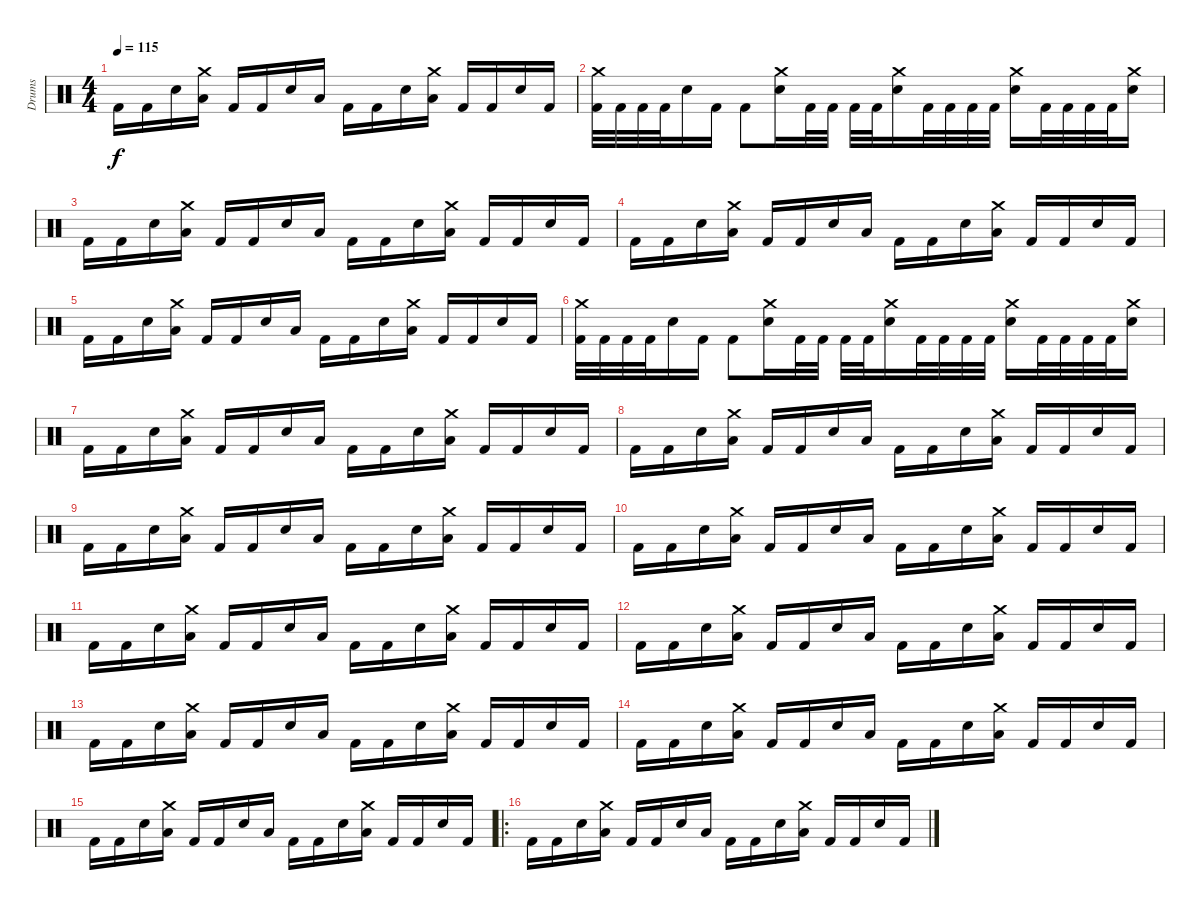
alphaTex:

\track ("Drums" "Drums") {instrument percussion}
\staff {score}
\articulation defaults
\ts (4 4)
\tempo 115
\clef neutral
\ks c "Kick (hit) 2".16{dy f} "Kick (hit) 2".16 "Electric Snare (hit)".16
("Crash medium (hit)" "Low Tom (hit)").16 "Kick (hit) 2".16 "Kick (hit) 2".16 "Electric Snare (hit)".16 "Low Tom (hit)".16 "Kick (hit) 2".16 "Kick (hit) 2".16 "Electric Snare (hit)".16 ("Crash medium (hit)" "Low Tom (hit)").16 "Kick (hit) 2".16 "Kick (hit) 2".16 "Electric Snare (hit)".16 "Kick (hit) 2".16 |
("Crash medium (hit)" "Kick (hit) 2").32 "Kick (hit) 2".32 "Kick (hit) 2".32 "Kick (hit) 2".32 "Electric Snare (hit)".16 "Kick (hit) 2".16 "Kick (hit) 2".8 ("Crash medium (hit)" "Electric Snare (hit)").16 "Kick (hit) 2".32 "Kick (hit) 2".32 "Kick (hit) 2".32 "Kick (hit) 2".32 ("Crash medium (hit)" "Electric Snare (hit)").16 "Kick (hit) 2".32 "Kick (hit) 2".32 "Kick (hit) 2".32 "Kick (hit) 2".32 ("Crash medium (hit)" "Electric Snare (hit)").16 "Kick (hit) 2".32 "Kick (hit) 2".32 "Kick (hit) 2".32 "Kick (hit) 2".32 ("Crash medium (hit)" "Electric Snare (hit)").16 |
"Kick (hit) 2".16 "Kick (hit) 2".16 "Electric Snare (hit)".16 ("Crash medium (hit)" "Low Tom (hit)").16 "Kick (hit) 2".16 "Kick (hit) 2".16 "Electric Snare (hit)".16 "Low Tom (hit)".16 "Kick (hit) 2".16 "Kick (hit) 2".16 "Electric Snare (hit)".16 ("Crash medium (hit)" "Low Tom (hit)").16 "Kick (hit) 2".16 "Kick (hit) 2".16 "Electric Snare (hit)".16 "Kick (hit) 2".16 |
"Kick (hit) 2".16 "Kick (hit) 2".16 "Electric Snare (hit)".16 ("Crash medium (hit)" "Low Tom (hit)").16 "Kick (hit) 2".16 "Kick (hit) 2".16 "Electric Snare (hit)".16 "Low Tom (hit)".16 "Kick (hit) 2".16 "Kick (hit) 2".16 "Electric Snare (hit)".16 ("Crash medium (hit)" "Low Tom (hit)").16 "Kick (hit) 2".16 "Kick (hit) 2".16 "Electric Snare (hit)".16 "Kick (hit) 2".16 |
"Kick (hit) 2".16 "Kick (hit) 2".16 "Electric Snare (hit)".16 ("Crash medium (hit)" "Low Tom (hit)").16 "Kick (hit) 2".16 "Kick (hit) 2".16 "Electric Snare (hit)".16 "Low Tom (hit)".16 "Kick (hit) 2".16 "Kick (hit) 2".16 "Electric Snare (hit)".16 ("Crash medium (hit)" "Low Tom (hit)").16 "Kick (hit) 2".16 "Kick (hit) 2".16 "Electric Snare (hit)".16 "Kick (hit) 2".16 |
("Crash medium (hit)" "Kick (hit) 2").32 "Kick (hit) 2".32 "Kick (hit) 2".32 "Kick (hit) 2".32 "Electric Snare (hit)".16 "Kick (hit) 2".16 "Kick (hit) 2".8 ("Crash medium (hit)" "Electric Snare (hit)").16 "Kick (hit) 2".32 "Kick (hit) 2".32 "Kick (hit) 2".32 "Kick (hit) 2".32 ("Crash medium (hit)" "Electric Snare (hit)").16 "Kick (hit) 2".32 "Kick (hit) 2".32 "Kick (hit) 2".32 "Kick (hit) 2".32 ("Crash medium (hit)" "Electric Snare (hit)").16 "Kick (hit) 2".32 "Kick (hit) 2".32 "Kick (hit) 2".32 "Kick (hit) 2".32 ("Crash medium (hit)" "Electric Snare (hit)").16 |
"Kick (hit) 2".16 "Kick (hit) 2".16 "Electric Snare (hit)".16 ("Crash medium (hit)" "Low Tom (hit)").16 "Kick (hit) 2".16 "Kick (hit) 2".16 "Electric Snare (hit)".16 "Low Tom (hit)".16 "Kick (hit) 2".16 "Kick (hit) 2".16 "Electric Snare (hit)".16 ("Crash medium (hit)" "Low Tom (hit)").16 "Kick (hit) 2".16 "Kick (hit) 2".16 "Electric Snare (hit)".16 "Kick (hit) 2".16 |
"Kick (hit) 2".16 "Kick (hit) 2".16 "Electric Snare (hit)".16 ("Crash medium (hit)" "Low Tom (hit)").16 "Kick (hit) 2".16 "Kick (hit) 2".16 "Electric Snare (hit)".16 "Low Tom (hit)".16 "Kick (hit) 2".16 "Kick (hit) 2".16 "Electric Snare (hit)".16 ("Crash medium (hit)" "Low Tom (hit)").16 "Kick (hit) 2".16 "Kick (hit) 2".16 "Electric Snare (hit)".16 "Kick (hit) 2".16 |
"Kick (hit) 2".16 "Kick (hit) 2".16 "Electric Snare (hit)".16 ("Crash medium (hit)" "Low Tom (hit)").16 "Kick (hit) 2".16 "Kick (hit) 2".16 "Electric Snare (hit)".16 "Low Tom (hit)".16 "Kick (hit) 2".16 "Kick (hit) 2".16 "Electric Snare (hit)".16 ("Crash medium (hit)" "Low Tom (hit)").16 "Kick (hit) 2".16 "Kick (hit) 2".16 "Electric Snare (hit)".16 "Kick (hit) 2".16 |
"Kick (hit) 2".16 "Kick (hit) 2".16 "Electric Snare (hit)".16 ("Crash medium (hit)" "Low Tom (hit)").16 "Kick (hit) 2".16 "Kick (hit) 2".16 "Electric Snare (hit)".16 "Low Tom (hit)".16 "Kick (hit) 2".16 "Kick (hit) 2".16 "Electric Snare (hit)".16 ("Crash medium (hit)" "Low Tom (hit)").16 "Kick (hit) 2".16 "Kick (hit) 2".16 "Electric Snare (hit)".16 "Kick (hit) 2".16 |
"Kick (hit) 2".16 "Kick (hit) 2".16 "Electric Snare (hit)".16 ("Crash medium (hit)" "Low Tom (hit)").16 "Kick (hit) 2".16 "Kick (hit) 2".16 "Electric Snare (hit)".16 "Low Tom (hit)".16 "Kick (hit) 2".16 "Kick (hit) 2".16 "Electric Snare (hit)".16 ("Crash medium (hit)" "Low Tom (hit)").16 "Kick (hit) 2".16 "Kick (hit) 2".16 "Electric Snare (hit)".16 "Kick (hit) 2".16 |
"Kick (hit) 2".16 "Kick (hit) 2".16 "Electric Snare (hit)".16 ("Crash medium (hit)" "Low Tom (hit)").16 "Kick (hit) 2".16 "Kick (hit) 2".16 "Electric Snare (hit)".16 "Low Tom (hit)".16 "Kick (hit) 2".16 "Kick (hit) 2".16 "Electric Snare (hit)".16 ("Crash medium (hit)" "Low Tom (hit)").16 "Kick (hit) 2".16 "Kick (hit) 2".16 "Electric Snare (hit)".16 "Kick (hit) 2".16 |
"Kick (hit) 2".16 "Kick (hit) 2".16 "Electric Snare (hit)".16 ("Crash medium (hit)" "Low Tom (hit)").16 "Kick (hit) 2".16 "Kick (hit) 2".16 "Electric Snare (hit)".16 "Low Tom (hit)".16 "Kick (hit) 2".16 "Kick (hit) 2".16 "Electric Snare (hit)".16 ("Crash medium (hit)" "Low Tom (hit)").16 "Kick (hit) 2".16 "Kick (hit) 2".16 "Electric Snare (hit)".16 "Kick (hit) 2".16 |
"Kick (hit) 2".16 "Kick (hit) 2".16 "Electric Snare (hit)".16 ("Crash medium (hit)" "Low Tom (hit)").16 "Kick (hit) 2".16 "Kick (hit) 2".16 "Electric Snare (hit)".16 "Low Tom (hit)".16 "Kick (hit) 2".16 "Kick (hit) 2".16 "Electric Snare (hit)".16 ("Crash medium (hit)" "Low Tom (hit)").16 "Kick (hit) 2".16 "Kick (hit) 2".16 "Electric Snare (hit)".16 "Kick (hit) 2".16 |
"Kick (hit) 2".16 "Kick (hit) 2".16 "Electric Snare (hit)".16 ("Crash medium (hit)" "Low Tom (hit)").16 "Kick (hit) 2".16 "Kick (hit) 2".16 "Electric Snare (hit)".16 "Low Tom (hit)".16 "Kick (hit) 2".16 "Kick (hit) 2".16 "Electric Snare (hit)".16 ("Crash medium (hit)" "Low Tom (hit)").16 "Kick (hit) 2".16 "Kick (hit) 2".16 "Electric Snare (hit)".16 "Kick (hit) 2".16 |
\ro "Kick (hit) 2".16 "Kick (hit) 2".16 "Electric Snare (hit)".16
("Crash medium (hit)" "Low Tom (hit)").16 "Kick (hit) 2".16 "Kick (hit) 2".16 "Electric Snare (hit)".16 "Low Tom (hit)".16 "Kick (hit) 2".16 "Kick (hit) 2".16 "Electric Snare (hit)".16 ("Crash medium (hit)" "Low Tom (hit)").16 "Kick (hit) 2".16 "Kick (hit) 2".16 "Electric Snare (hit)".16 "Kick (hit) 2".16
